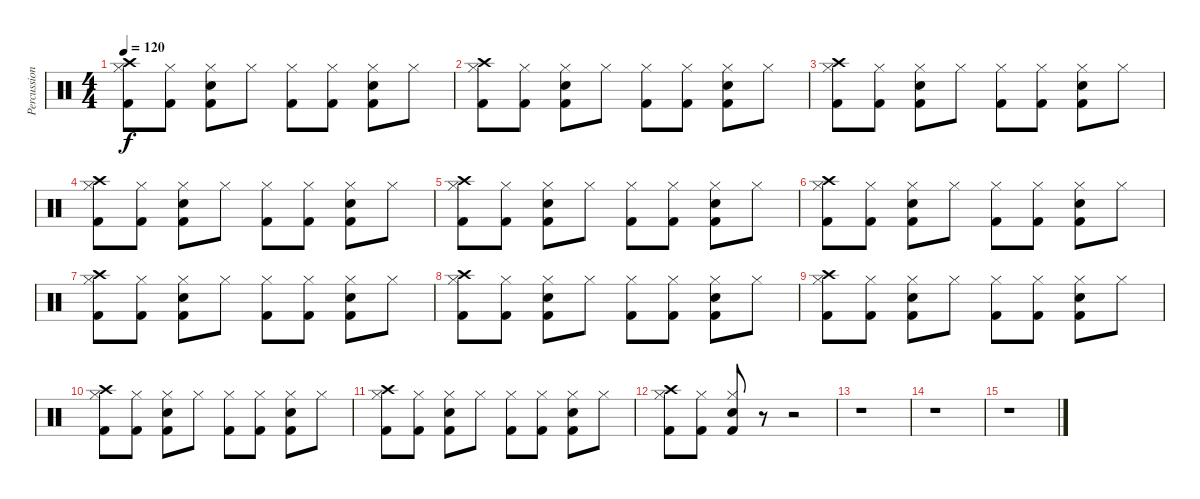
\track ("Percussion" "Percussion") {instrument percussion}
\staff {score}
\articulation defaults
\ts (4 4)
\tempo 120
\clef neutral
\ks c
("Kick (hit) 2" "Hi-Hat (closed)" "Crash high (hit)").8{dy f} ("Kick (hit) 2" "Hi-Hat (closed)").8 ("Kick (hit) 2" "Snare (hit) 2" "Hi-Hat (closed)").8 "Hi-Hat (closed)".8 ("Kick (hit) 2" "Hi-Hat (closed)").8 ("Kick (hit) 2" "Hi-Hat (closed)").8 ("Kick (hit) 2" "Snare (hit) 2" "Hi-Hat (closed)").8 "Hi-Hat (closed)".8 |
("Kick (hit) 2" "Hi-Hat (closed)" "Crash high (hit)").8 ("Kick (hit) 2" "Hi-Hat (closed)").8 ("Kick (hit) 2" "Snare (hit) 2" "Hi-Hat (closed)").8 "Hi-Hat (closed)".8 ("Kick (hit) 2" "Hi-Hat (closed)").8 ("Kick (hit) 2" "Hi-Hat (closed)").8 ("Kick (hit) 2" "Snare (hit) 2" "Hi-Hat (closed)").8 "Hi-Hat (closed)".8 |
("Kick (hit) 2" "Hi-Hat (closed)" "Crash high (hit)").8 ("Kick (hit) 2" "Hi-Hat (closed)").8 ("Kick (hit) 2" "Snare (hit) 2" "Hi-Hat (closed)").8 "Hi-Hat (closed)".8 ("Kick (hit) 2" "Hi-Hat (closed)").8 ("Kick (hit) 2" "Hi-Hat (closed)").8 ("Kick (hit) 2" "Snare (hit) 2" "Hi-Hat (closed)").8 "Hi-Hat (closed)".8 |
("Kick (hit) 2" "Hi-Hat (closed)" "Crash high (hit)").8 ("Kick (hit) 2" "Hi-Hat (closed)").8 ("Kick (hit) 2" "Snare (hit) 2" "Hi-Hat (closed)").8 "Hi-Hat (closed)".8 ("Kick (hit) 2" "Hi-Hat (closed)").8 ("Kick (hit) 2" "Hi-Hat (closed)").8 ("Kick (hit) 2" "Snare (hit) 2" "Hi-Hat (closed)").8 "Hi-Hat (closed)".8 |
("Kick (hit) 2" "Hi-Hat (closed)" "Crash high (hit)").8 ("Kick (hit) 2" "Hi-Hat (closed)").8 ("Kick (hit) 2" "Snare (hit) 2" "Hi-Hat (closed)").8 "Hi-Hat (closed)".8 ("Kick (hit) 2" "Hi-Hat (closed)").8 ("Kick (hit) 2" "Hi-Hat (closed)").8 ("Kick (hit) 2" "Snare (hit) 2" "Hi-Hat (closed)").8 "Hi-Hat (closed)".8 |
("Kick (hit) 2" "Hi-Hat (closed)" "Crash high (hit)").8 ("Kick (hit) 2" "Hi-Hat (closed)").8 ("Kick (hit) 2" "Snare (hit) 2" "Hi-Hat (closed)").8 "Hi-Hat (closed)".8 ("Kick (hit) 2" "Hi-Hat (closed)").8 ("Kick (hit) 2" "Hi-Hat (closed)").8 ("Kick (hit) 2" "Snare (hit) 2" "Hi-Hat (closed)").8 "Hi-Hat (closed)".8 |
("Kick (hit) 2" "Hi-Hat (closed)" "Crash high (hit)").8 ("Kick (hit) 2" "Hi-Hat (closed)").8 ("Kick (hit) 2" "Snare (hit) 2" "Hi-Hat (closed)").8 "Hi-Hat (closed)".8 ("Kick (hit) 2" "Hi-Hat (closed)").8 ("Kick (hit) 2" "Hi-Hat (closed)").8 ("Kick (hit) 2" "Snare (hit) 2" "Hi-Hat (closed)").8 "Hi-Hat (closed)".8 |
("Kick (hit) 2" "Hi-Hat (closed)" "Crash high (hit)").8 ("Kick (hit) 2" "Hi-Hat (closed)").8 ("Kick (hit) 2" "Snare (hit) 2" "Hi-Hat (closed)").8 "Hi-Hat (closed)".8 ("Kick (hit) 2" "Hi-Hat (closed)").8 ("Kick (hit) 2" "Hi-Hat (closed)").8 ("Kick (hit) 2" "Snare (hit) 2" "Hi-Hat (closed)").8 "Hi-Hat (closed)".8 |
("Kick (hit) 2" "Hi-Hat (closed)" "Crash high (hit)").8 ("Kick (hit) 2" "Hi-Hat (closed)").8 ("Kick (hit) 2" "Snare (hit) 2" "Hi-Hat (closed)").8 "Hi-Hat (closed)".8 ("Kick (hit) 2" "Hi-Hat (closed)").8 ("Kick (hit) 2" "Hi-Hat (closed)").8 ("Kick (hit) 2" "Snare (hit) 2" "Hi-Hat (closed)").8 "Hi-Hat (closed)".8 |
("Kick (hit) 2" "Hi-Hat (closed)" "Crash high (hit)").8 ("Kick (hit) 2" "Hi-Hat (closed)").8 ("Kick (hit) 2" "Snare (hit) 2" "Hi-Hat (closed)").8 "Hi-Hat (closed)".8 ("Kick (hit) 2" "Hi-Hat (closed)").8 ("Kick (hit) 2" "Hi-Hat (closed)").8 ("Kick (hit) 2" "Snare (hit) 2" "Hi-Hat (closed)").8 "Hi-Hat (closed)".8 |
("Kick (hit) 2" "Hi-Hat (closed)" "Crash high (hit)").8 ("Kick (hit) 2" "Hi-Hat (closed)").8 ("Kick (hit) 2" "Snare (hit) 2" "Hi-Hat (closed)").8 "Hi-Hat (closed)".8 ("Kick (hit) 2" "Hi-Hat (closed)").8 ("Kick (hit) 2" "Hi-Hat (closed)").8 ("Kick (hit) 2" "Snare (hit) 2" "Hi-Hat (closed)").8 "Hi-Hat (closed)".8 |
("Kick (hit) 2" "Hi-Hat (closed)" "Crash high (hit)").8 ("Kick (hit) 2" "Hi-Hat (closed)").8 ("Kick (hit) 2" "Snare (hit) 2" "Hi-Hat (closed)").8 r.8 r.2 |
r.1 |
r.1 |
r.1
